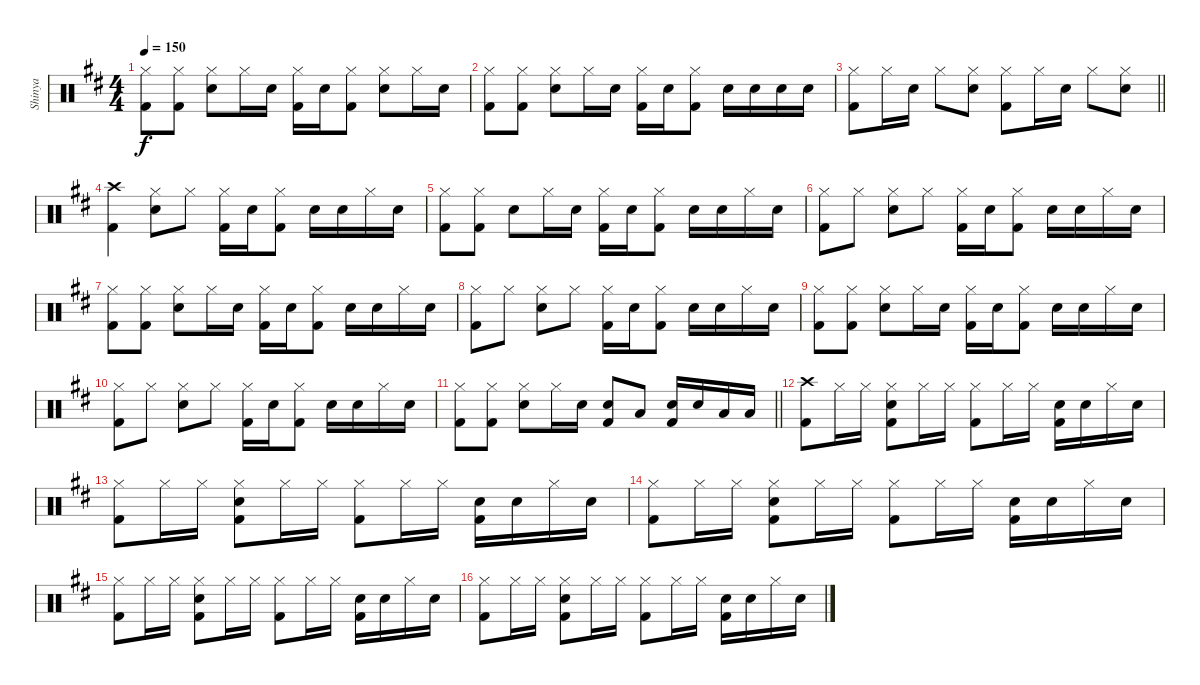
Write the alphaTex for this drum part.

\track ("Shinya" "Shinya") {instrument percussion}
\staff {score}
\articulation defaults
\ts (4 4)
\tempo 150
\clef neutral
\ks d
("Hi-Hat (closed)" "Kick (hit) 2").8{dy f} ("Hi-Hat (closed)" "Kick (hit) 2").8 ("Hi-Hat (closed)" "Electric Snare (hit)").8 "Hi-Hat (closed)".16 "Electric Snare (hit)".16 ("Hi-Hat (closed)" "Kick (hit) 2").16 "Electric Snare (hit)".16 ("Hi-Hat (closed)" "Kick (hit) 2").8 ("Hi-Hat (closed)" "Electric Snare (hit)").8 "Hi-Hat (closed)".16 "Electric Snare (hit)".16 |
("Hi-Hat (closed)" "Kick (hit) 2").8 ("Hi-Hat (closed)" "Kick (hit) 2").8 ("Hi-Hat (closed)" "Electric Snare (hit)").8 "Hi-Hat (closed)".16 "Electric Snare (hit)".16 ("Hi-Hat (closed)" "Kick (hit) 2").16 "Electric Snare (hit)".16 ("Hi-Hat (closed)" "Kick (hit) 2").8 "Electric Snare (hit)".16 "Electric Snare (hit)".16 "Electric Snare (hit)".16 "Electric Snare (hit)".16 |
\barLineRight lightlight
("Hi-Hat (closed)" "Kick (hit) 2").8 "Hi-Hat (closed)".16 "Electric Snare (hit)".16 "Hi-Hat (closed)".8 ("Hi-Hat (closed)" "Electric Snare (hit)").8 ("Hi-Hat (closed)" "Kick (hit) 2").8 "Hi-Hat (closed)".16 "Electric Snare (hit)".16 "Hi-Hat (closed)".8 ("Hi-Hat (closed)" "Electric Snare (hit)").8 |
("Crash high (hit)" "Kick (hit) 2").4 ("Hi-Hat (closed)" "Electric Snare (hit)").8 "Hi-Hat (closed)".8 ("Hi-Hat (closed)" "Kick (hit) 2").16 "Electric Snare (hit)".16 ("Hi-Hat (closed)" "Kick (hit) 2").8 "Electric Snare (hit)".16 "Electric Snare (hit)".16 "Hi-Hat (closed)".16 "Electric Snare (hit)".16 |
("Hi-Hat (closed)" "Kick (hit) 2").8 ("Hi-Hat (closed)" "Kick (hit) 2").8 "Electric Snare (hit)".8 "Hi-Hat (closed)".16 "Electric Snare (hit)".16 ("Hi-Hat (closed)" "Kick (hit) 2").16 "Electric Snare (hit)".16 ("Hi-Hat (closed)" "Kick (hit) 2").8 "Electric Snare (hit)".16 "Electric Snare (hit)".16 "Hi-Hat (closed)".16 "Electric Snare (hit)".16 |
("Hi-Hat (closed)" "Kick (hit) 2").8 "Hi-Hat (closed)".8 ("Hi-Hat (closed)" "Electric Snare (hit)").8 "Hi-Hat (closed)".8 ("Hi-Hat (closed)" "Kick (hit) 2").16 "Electric Snare (hit)".16 ("Hi-Hat (closed)" "Kick (hit) 2").8 "Electric Snare (hit)".16 "Electric Snare (hit)".16 "Hi-Hat (closed)".16 "Electric Snare (hit)".16 |
("Hi-Hat (closed)" "Kick (hit) 2").8 ("Hi-Hat (closed)" "Kick (hit) 2").8 ("Hi-Hat (closed)" "Electric Snare (hit)").8 "Hi-Hat (closed)".16 "Electric Snare (hit)".16 ("Hi-Hat (closed)" "Kick (hit) 2").16 "Electric Snare (hit)".16 ("Hi-Hat (closed)" "Kick (hit) 2").8 "Electric Snare (hit)".16 "Electric Snare (hit)".16 "Hi-Hat (closed)".16 "Electric Snare (hit)".16 |
("Hi-Hat (closed)" "Kick (hit) 2").8 "Hi-Hat (closed)".8 ("Hi-Hat (closed)" "Electric Snare (hit)").8 "Hi-Hat (closed)".8 ("Hi-Hat (closed)" "Kick (hit) 2").16 "Electric Snare (hit)".16 ("Hi-Hat (closed)" "Kick (hit) 2").8 "Electric Snare (hit)".16 "Electric Snare (hit)".16 "Hi-Hat (closed)".16 "Electric Snare (hit)".16 |
("Hi-Hat (closed)" "Kick (hit) 2").8 ("Hi-Hat (closed)" "Kick (hit) 2").8 ("Hi-Hat (closed)" "Electric Snare (hit)").8 "Hi-Hat (closed)".16 "Electric Snare (hit)".16 ("Hi-Hat (closed)" "Kick (hit) 2").16 "Electric Snare (hit)".16 ("Hi-Hat (closed)" "Kick (hit) 2").8 "Electric Snare (hit)".16 "Electric Snare (hit)".16 "Hi-Hat (closed)".16 "Electric Snare (hit)".16 |
("Hi-Hat (closed)" "Kick (hit) 2").8 "Hi-Hat (closed)".8 ("Hi-Hat (closed)" "Electric Snare (hit)").8 "Hi-Hat (closed)".8 ("Hi-Hat (closed)" "Kick (hit) 2").16 "Electric Snare (hit)".16 ("Hi-Hat (closed)" "Kick (hit) 2").8 "Electric Snare (hit)".16 "Electric Snare (hit)".16 "Hi-Hat (closed)".16 "Electric Snare (hit)".16 |
\barLineRight lightlight
("Hi-Hat (closed)" "Kick (hit) 2").8 ("Hi-Hat (closed)" "Kick (hit) 2").8 ("Hi-Hat (closed)" "Electric Snare (hit)").8 "Hi-Hat (closed)".16 "Electric Snare (hit)".16 ("Electric Snare (hit)" "Kick (hit) 2").8 "Low Tom (hit)".8 ("Electric Snare (hit)" "Kick (hit) 2").16 "Electric Snare (hit)".16 "Low Tom (hit)".16 "Low Tom (hit)".16 |
("Crash high (hit)" "Kick (hit) 2").8 "Hi-Hat (closed)".16 "Hi-Hat (closed)".16 ("Hi-Hat (closed)" "Electric Snare (hit)" "Kick (hit) 2").8 "Hi-Hat (closed)".16 "Hi-Hat (closed)".16 ("Hi-Hat (closed)" "Kick (hit) 2").8 "Hi-Hat (closed)".16 "Hi-Hat (closed)".16 ("Electric Snare (hit)" "Kick (hit) 2").16 "Electric Snare (hit)".16 "Hi-Hat (closed)".16 "Electric Snare (hit)".16 |
("Hi-Hat (closed)" "Kick (hit) 2").8 "Hi-Hat (closed)".16 "Hi-Hat (closed)".16 ("Hi-Hat (closed)" "Electric Snare (hit)" "Kick (hit) 2").8 "Hi-Hat (closed)".16 "Hi-Hat (closed)".16 ("Hi-Hat (closed)" "Kick (hit) 2").8 "Hi-Hat (closed)".16 "Hi-Hat (closed)".16 ("Electric Snare (hit)" "Kick (hit) 2").16 "Electric Snare (hit)".16 "Hi-Hat (closed)".16 "Electric Snare (hit)".16 |
("Hi-Hat (closed)" "Kick (hit) 2").8 "Hi-Hat (closed)".16 "Hi-Hat (closed)".16 ("Hi-Hat (closed)" "Electric Snare (hit)" "Kick (hit) 2").8 "Hi-Hat (closed)".16 "Hi-Hat (closed)".16 ("Hi-Hat (closed)" "Kick (hit) 2").8 "Hi-Hat (closed)".16 "Hi-Hat (closed)".16 ("Electric Snare (hit)" "Kick (hit) 2").16 "Electric Snare (hit)".16 "Hi-Hat (closed)".16 "Electric Snare (hit)".16 |
("Hi-Hat (closed)" "Kick (hit) 2").8 "Hi-Hat (closed)".16 "Hi-Hat (closed)".16 ("Hi-Hat (closed)" "Electric Snare (hit)" "Kick (hit) 2").8 "Hi-Hat (closed)".16 "Hi-Hat (closed)".16 ("Hi-Hat (closed)" "Kick (hit) 2").8 "Hi-Hat (closed)".16 "Hi-Hat (closed)".16 ("Electric Snare (hit)" "Kick (hit) 2").16 "Electric Snare (hit)".16 "Hi-Hat (closed)".16 "Electric Snare (hit)".16 |
("Hi-Hat (closed)" "Kick (hit) 2").8 "Hi-Hat (closed)".16 "Hi-Hat (closed)".16 ("Hi-Hat (closed)" "Electric Snare (hit)" "Kick (hit) 2").8 "Hi-Hat (closed)".16 "Hi-Hat (closed)".16 ("Hi-Hat (closed)" "Kick (hit) 2").8 "Hi-Hat (closed)".16 "Hi-Hat (closed)".16 ("Electric Snare (hit)" "Kick (hit) 2").16 "Electric Snare (hit)".16 "Hi-Hat (closed)".16 "Electric Snare (hit)".16
